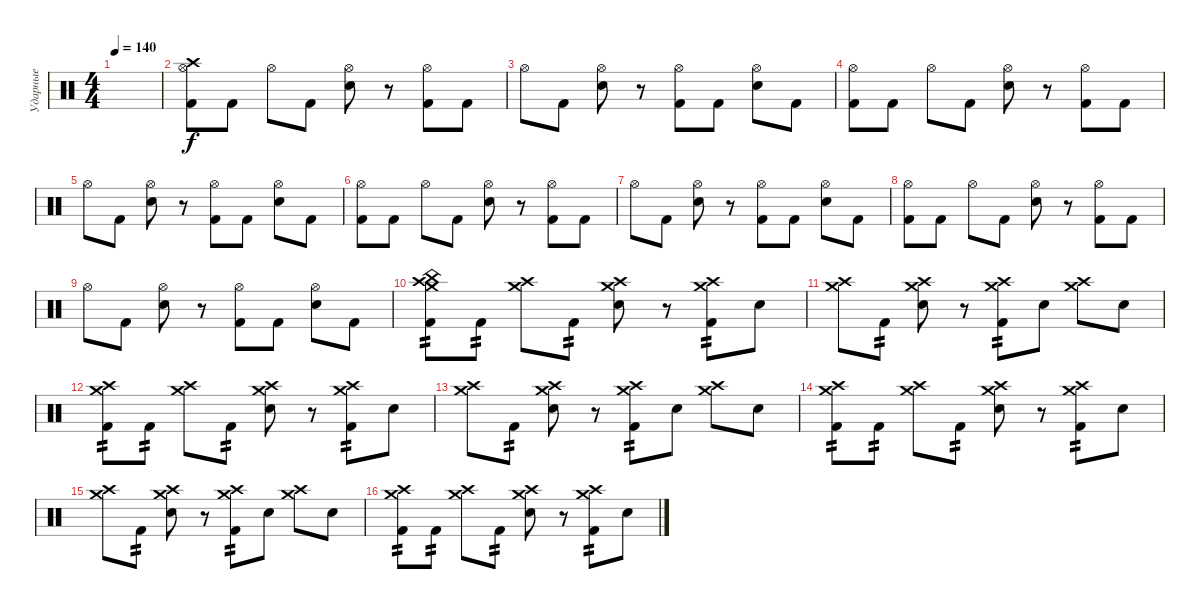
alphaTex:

\track ("Ударные" "Ударные") {instrument percussion}
\staff {score}
\articulation defaults
\ts (4 4)
\tempo 140
\clef neutral
\ks c
|
("Crash high (hit)" "Hi-Hat (open)" "Kick (hit) 2").8 "Kick (hit) 2".8 "Hi-Hat (open)".8 "Kick (hit) 2".8 ("Hi-Hat (open)" "Electric Snare (hit)").8 r.8 ("Hi-Hat (open)" "Kick (hit) 2").8 "Kick (hit) 2".8 |
"Hi-Hat (open)".8 "Kick (hit) 2".8 ("Hi-Hat (open)" "Electric Snare (hit)").8 r.8 ("Hi-Hat (open)" "Kick (hit) 2").8 "Kick (hit) 2".8 ("Hi-Hat (open)" "Electric Snare (hit)").8 "Kick (hit) 2".8 |
("Hi-Hat (open)" "Kick (hit) 2").8 "Kick (hit) 2".8 "Hi-Hat (open)".8 "Kick (hit) 2".8 ("Hi-Hat (open)" "Electric Snare (hit)").8 r.8 ("Hi-Hat (open)" "Kick (hit) 2").8 "Kick (hit) 2".8 |
"Hi-Hat (open)".8 "Kick (hit) 2".8 ("Hi-Hat (open)" "Electric Snare (hit)").8 r.8 ("Hi-Hat (open)" "Kick (hit) 2").8 "Kick (hit) 2".8 ("Hi-Hat (open)" "Electric Snare (hit)").8 "Kick (hit) 2".8 |
("Hi-Hat (open)" "Kick (hit) 2").8 "Kick (hit) 2".8 "Hi-Hat (open)".8 "Kick (hit) 2".8 ("Hi-Hat (open)" "Electric Snare (hit)").8 r.8 ("Hi-Hat (open)" "Kick (hit) 2").8 "Kick (hit) 2".8 |
"Hi-Hat (open)".8 "Kick (hit) 2".8 ("Hi-Hat (open)" "Electric Snare (hit)").8 r.8 ("Hi-Hat (open)" "Kick (hit) 2").8 "Kick (hit) 2".8 ("Hi-Hat (open)" "Electric Snare (hit)").8 "Kick (hit) 2".8 |
("Hi-Hat (open)" "Kick (hit) 2").8 "Kick (hit) 2".8 "Hi-Hat (open)".8 "Kick (hit) 2".8 ("Hi-Hat (open)" "Electric Snare (hit)").8 r.8 ("Hi-Hat (open)" "Kick (hit) 2").8 "Kick (hit) 2".8 |
"Hi-Hat (open)".8 "Kick (hit) 2".8 ("Hi-Hat (open)" "Electric Snare (hit)").8 r.8 ("Hi-Hat (open)" "Kick (hit) 2").8 "Kick (hit) 2".8 ("Hi-Hat (open)" "Electric Snare (hit)").8 "Kick (hit) 2".8 |
("Crash high (hit)" "Crash medium (hit)" "China (hit)" "Kick (hit) 2").8{tp 2} "Kick (hit) 2".8{tp 2} ("Crash high (hit)" "Crash medium (hit)").8 "Kick (hit) 2".8{tp 2} ("Crash high (hit)" "Crash medium (hit)" "Electric Snare (hit)").8 r.8 ("Crash high (hit)" "Crash medium (hit)" "Kick (hit) 2").8{tp 2} "Electric Snare (hit)".8 |
("Crash high (hit)" "Crash medium (hit)").8 "Kick (hit) 2".8{tp 2} ("Crash high (hit)" "Crash medium (hit)" "Electric Snare (hit)").8 r.8 ("Crash high (hit)" "Crash medium (hit)" "Kick (hit) 2").8{tp 2} "Electric Snare (hit)".8 ("Crash high (hit)" "Crash medium (hit)").8 "Electric Snare (hit)".8 |
("Crash high (hit)" "Crash medium (hit)" "Kick (hit) 2").8{tp 2} "Kick (hit) 2".8{tp 2} ("Crash high (hit)" "Crash medium (hit)").8 "Kick (hit) 2".8{tp 2} ("Crash high (hit)" "Crash medium (hit)" "Electric Snare (hit)").8 r.8 ("Crash high (hit)" "Crash medium (hit)" "Kick (hit) 2").8{tp 2} "Electric Snare (hit)".8 |
("Crash high (hit)" "Crash medium (hit)").8 "Kick (hit) 2".8{tp 2} ("Crash high (hit)" "Crash medium (hit)" "Electric Snare (hit)").8 r.8 ("Crash high (hit)" "Crash medium (hit)" "Kick (hit) 2").8{tp 2} "Electric Snare (hit)".8 ("Crash high (hit)" "Crash medium (hit)").8 "Electric Snare (hit)".8 |
("Crash high (hit)" "Crash medium (hit)" "Kick (hit) 2").8{tp 2} "Kick (hit) 2".8{tp 2} ("Crash high (hit)" "Crash medium (hit)").8 "Kick (hit) 2".8{tp 2} ("Crash high (hit)" "Crash medium (hit)" "Electric Snare (hit)").8 r.8 ("Crash high (hit)" "Crash medium (hit)" "Kick (hit) 2").8{tp 2} "Electric Snare (hit)".8 |
("Crash high (hit)" "Crash medium (hit)").8 "Kick (hit) 2".8{tp 2} ("Crash high (hit)" "Crash medium (hit)" "Electric Snare (hit)").8 r.8 ("Crash high (hit)" "Crash medium (hit)" "Kick (hit) 2").8{tp 2} "Electric Snare (hit)".8 ("Crash high (hit)" "Crash medium (hit)").8 "Electric Snare (hit)".8 |
("Crash high (hit)" "Crash medium (hit)" "Kick (hit) 2").8{tp 2} "Kick (hit) 2".8{tp 2} ("Crash high (hit)" "Crash medium (hit)").8 "Kick (hit) 2".8{tp 2} ("Crash high (hit)" "Crash medium (hit)" "Electric Snare (hit)").8 r.8 ("Crash high (hit)" "Crash medium (hit)" "Kick (hit) 2").8{tp 2} "Electric Snare (hit)".8
